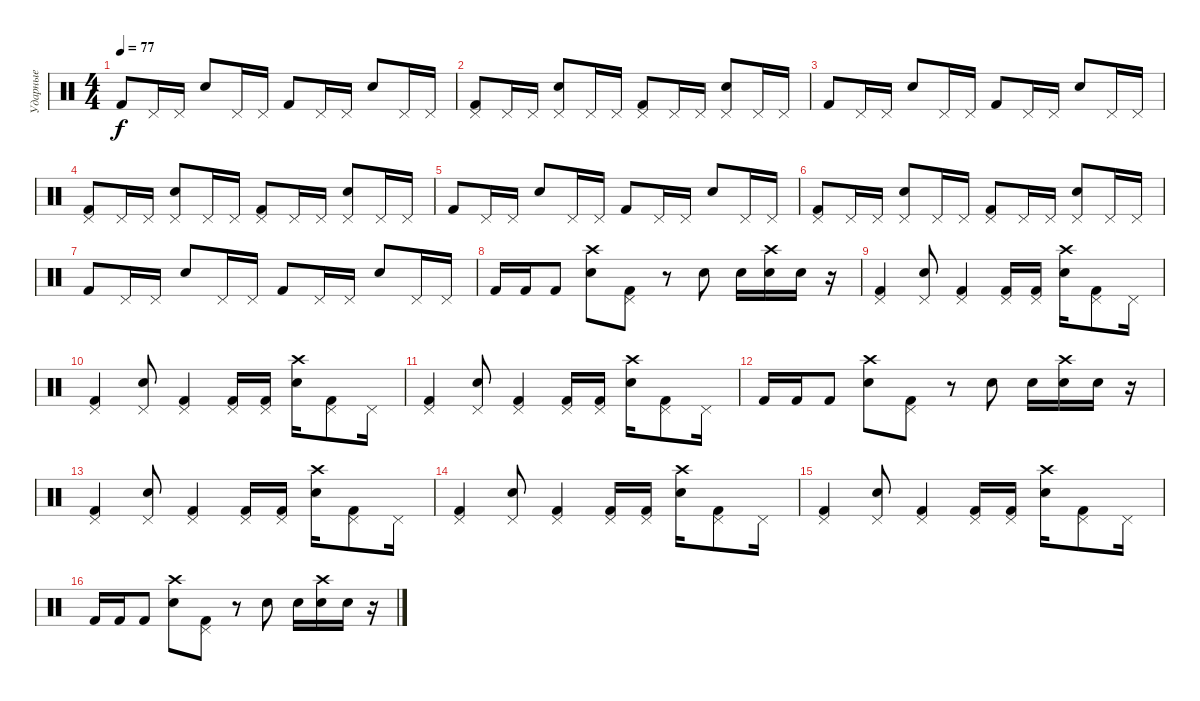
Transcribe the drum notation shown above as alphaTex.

\track ("Ударные" "Ударные") {instrument percussion}
\staff {score}
\articulation defaults
\ts (4 4)
\tempo 77
\clef neutral
\ks c "Kick (hit) 2".8{dy f} "Pedal Hi-Hat (hit)".16 "Pedal Hi-Hat (hit)".16 "Snare (hit) 2".8 "Pedal Hi-Hat (hit)".16 "Pedal Hi-Hat (hit)".16 "Kick (hit) 2".8 "Pedal Hi-Hat (hit)".16 "Pedal Hi-Hat (hit)".16 "Snare (hit) 2".8 "Pedal Hi-Hat (hit)".16 "Pedal Hi-Hat (hit)".16
|
("Kick (hit) 2" "Pedal Hi-Hat (hit)").8 "Pedal Hi-Hat (hit)".16 "Pedal Hi-Hat (hit)".16 ("Snare (hit) 2" "Pedal Hi-Hat (hit)").8 "Pedal Hi-Hat (hit)".16 "Pedal Hi-Hat (hit)".16 ("Kick (hit) 2" "Pedal Hi-Hat (hit)").8 "Pedal Hi-Hat (hit)".16 "Pedal Hi-Hat (hit)".16 ("Snare (hit) 2" "Pedal Hi-Hat (hit)").8 "Pedal Hi-Hat (hit)".16 "Pedal Hi-Hat (hit)".16 |
"Kick (hit) 2".8 "Pedal Hi-Hat (hit)".16 "Pedal Hi-Hat (hit)".16 "Snare (hit) 2".8 "Pedal Hi-Hat (hit)".16 "Pedal Hi-Hat (hit)".16 "Kick (hit) 2".8 "Pedal Hi-Hat (hit)".16 "Pedal Hi-Hat (hit)".16 "Snare (hit) 2".8 "Pedal Hi-Hat (hit)".16 "Pedal Hi-Hat (hit)".16 |
("Kick (hit) 2" "Pedal Hi-Hat (hit)").8 "Pedal Hi-Hat (hit)".16 "Pedal Hi-Hat (hit)".16 ("Snare (hit) 2" "Pedal Hi-Hat (hit)").8 "Pedal Hi-Hat (hit)".16 "Pedal Hi-Hat (hit)".16 ("Kick (hit) 2" "Pedal Hi-Hat (hit)").8 "Pedal Hi-Hat (hit)".16 "Pedal Hi-Hat (hit)".16 ("Snare (hit) 2" "Pedal Hi-Hat (hit)").8 "Pedal Hi-Hat (hit)".16 "Pedal Hi-Hat (hit)".16 |
"Kick (hit) 2".8 "Pedal Hi-Hat (hit)".16 "Pedal Hi-Hat (hit)".16 "Snare (hit) 2".8 "Pedal Hi-Hat (hit)".16 "Pedal Hi-Hat (hit)".16 "Kick (hit) 2".8 "Pedal Hi-Hat (hit)".16 "Pedal Hi-Hat (hit)".16 "Snare (hit) 2".8 "Pedal Hi-Hat (hit)".16 "Pedal Hi-Hat (hit)".16 |
("Kick (hit) 2" "Pedal Hi-Hat (hit)").8 "Pedal Hi-Hat (hit)".16 "Pedal Hi-Hat (hit)".16 ("Snare (hit) 2" "Pedal Hi-Hat (hit)").8 "Pedal Hi-Hat (hit)".16 "Pedal Hi-Hat (hit)".16 ("Kick (hit) 2" "Pedal Hi-Hat (hit)").8 "Pedal Hi-Hat (hit)".16 "Pedal Hi-Hat (hit)".16 ("Snare (hit) 2" "Pedal Hi-Hat (hit)").8 "Pedal Hi-Hat (hit)".16 "Pedal Hi-Hat (hit)".16 |
"Kick (hit) 2".8 "Pedal Hi-Hat (hit)".16 "Pedal Hi-Hat (hit)".16 "Snare (hit) 2".8 "Pedal Hi-Hat (hit)".16 "Pedal Hi-Hat (hit)".16 "Kick (hit) 2".8 "Pedal Hi-Hat (hit)".16 "Pedal Hi-Hat (hit)".16 "Snare (hit) 2".8 "Pedal Hi-Hat (hit)".16 "Pedal Hi-Hat (hit)".16 |
"Kick (hit) 2".16 "Kick (hit) 2".16 "Kick (hit) 2".8 ("Snare (hit) 2" "Crash high (hit)").8 ("Kick (hit) 2" "Pedal Hi-Hat (hit)").8 r.8 "Snare (hit) 2".8 "Snare (hit) 2".16 ("Snare (hit) 2" "Crash high (hit)").16 "Snare (hit) 2".16 r.16 |
("Kick (hit) 2" "Pedal Hi-Hat (hit)").4 ("Snare (hit) 2" "Pedal Hi-Hat (hit)").8 ("Kick (hit) 2" "Pedal Hi-Hat (hit)").4 ("Kick (hit) 2" "Pedal Hi-Hat (hit)").16 ("Kick (hit) 2" "Pedal Hi-Hat (hit)").16 ("Snare (hit) 2" "Crash high (hit)").16 ("Kick (hit) 2" "Pedal Hi-Hat (hit)").8 "Pedal Hi-Hat (hit)".16 |
("Kick (hit) 2" "Pedal Hi-Hat (hit)").4 ("Snare (hit) 2" "Pedal Hi-Hat (hit)").8 ("Kick (hit) 2" "Pedal Hi-Hat (hit)").4 ("Kick (hit) 2" "Pedal Hi-Hat (hit)").16 ("Kick (hit) 2" "Pedal Hi-Hat (hit)").16 ("Snare (hit) 2" "Crash high (hit)").16 ("Kick (hit) 2" "Pedal Hi-Hat (hit)").8 "Pedal Hi-Hat (hit)".16 |
("Kick (hit) 2" "Pedal Hi-Hat (hit)").4 ("Snare (hit) 2" "Pedal Hi-Hat (hit)").8 ("Kick (hit) 2" "Pedal Hi-Hat (hit)").4 ("Kick (hit) 2" "Pedal Hi-Hat (hit)").16 ("Kick (hit) 2" "Pedal Hi-Hat (hit)").16 ("Snare (hit) 2" "Crash high (hit)").16 ("Kick (hit) 2" "Pedal Hi-Hat (hit)").8 "Pedal Hi-Hat (hit)".16 |
"Kick (hit) 2".16 "Kick (hit) 2".16 "Kick (hit) 2".8 ("Snare (hit) 2" "Crash high (hit)").8 ("Kick (hit) 2" "Pedal Hi-Hat (hit)").8 r.8 "Snare (hit) 2".8 "Snare (hit) 2".16 ("Snare (hit) 2" "Crash high (hit)").16 "Snare (hit) 2".16 r.16 |
("Kick (hit) 2" "Pedal Hi-Hat (hit)").4 ("Snare (hit) 2" "Pedal Hi-Hat (hit)").8 ("Kick (hit) 2" "Pedal Hi-Hat (hit)").4 ("Kick (hit) 2" "Pedal Hi-Hat (hit)").16 ("Kick (hit) 2" "Pedal Hi-Hat (hit)").16 ("Snare (hit) 2" "Crash high (hit)").16 ("Kick (hit) 2" "Pedal Hi-Hat (hit)").8 "Pedal Hi-Hat (hit)".16 |
("Kick (hit) 2" "Pedal Hi-Hat (hit)").4 ("Snare (hit) 2" "Pedal Hi-Hat (hit)").8 ("Kick (hit) 2" "Pedal Hi-Hat (hit)").4 ("Kick (hit) 2" "Pedal Hi-Hat (hit)").16 ("Kick (hit) 2" "Pedal Hi-Hat (hit)").16 ("Snare (hit) 2" "Crash high (hit)").16 ("Kick (hit) 2" "Pedal Hi-Hat (hit)").8 "Pedal Hi-Hat (hit)".16 |
("Kick (hit) 2" "Pedal Hi-Hat (hit)").4 ("Snare (hit) 2" "Pedal Hi-Hat (hit)").8 ("Kick (hit) 2" "Pedal Hi-Hat (hit)").4 ("Kick (hit) 2" "Pedal Hi-Hat (hit)").16 ("Kick (hit) 2" "Pedal Hi-Hat (hit)").16 ("Snare (hit) 2" "Crash high (hit)").16 ("Kick (hit) 2" "Pedal Hi-Hat (hit)").8 "Pedal Hi-Hat (hit)".16 |
"Kick (hit) 2".16 "Kick (hit) 2".16 "Kick (hit) 2".8 ("Snare (hit) 2" "Crash high (hit)").8 ("Kick (hit) 2" "Pedal Hi-Hat (hit)").8 r.8 "Snare (hit) 2".8 "Snare (hit) 2".16 ("Snare (hit) 2" "Crash high (hit)").16 "Snare (hit) 2".16 r.16
